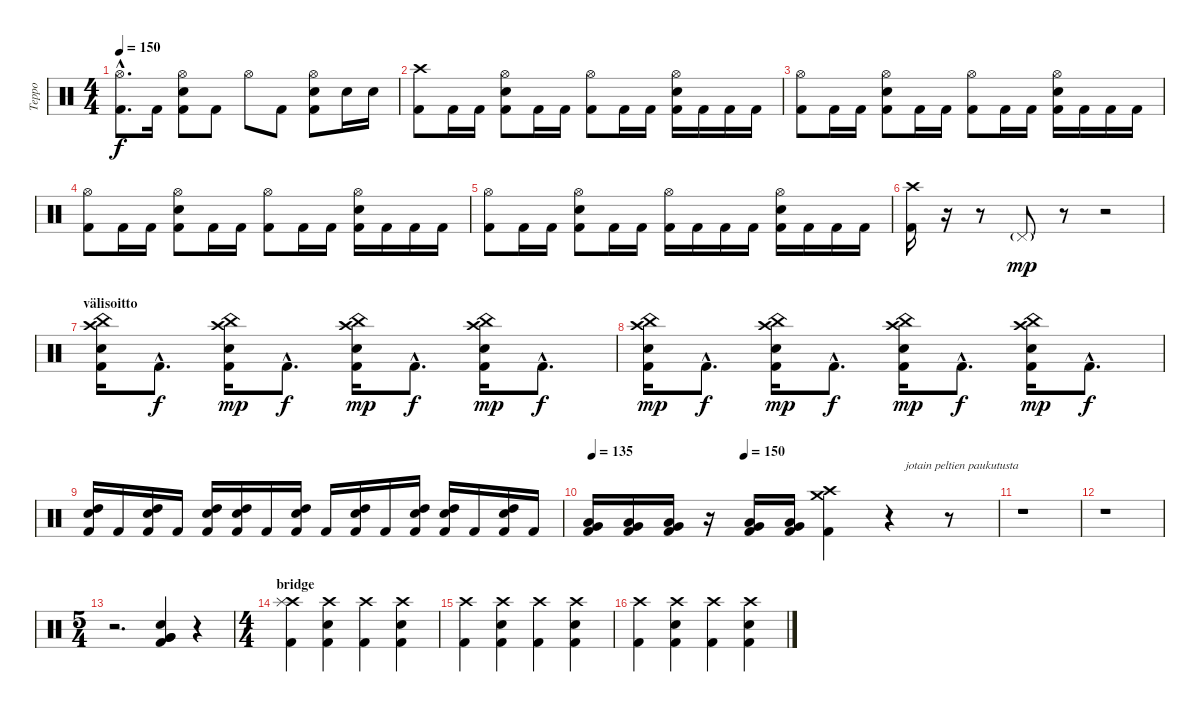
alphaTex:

\track ("Teppo" "Teppo") {instrument percussion}
\staff {score}
\articulation defaults
\ts (4 4)
\tempo 150
\clef neutral
\ks c
("Hi-Hat (open)"{hac} "Kick (hit) 2"{hac}).8{d dy f} "Kick (hit) 2".16 ("Hi-Hat (open)" "Electric Snare (hit)" "Kick (hit) 2").8 "Kick (hit) 2".8 "Hi-Hat (open)".8 "Kick (hit) 2".8 ("Hi-Hat (open)" "Electric Snare (hit)" "Kick (hit) 2").8 "Electric Snare (hit)".16 "Electric Snare (hit)".16 |
("Crash high (hit)" "Kick (hit) 2").8 "Kick (hit) 2".16 "Kick (hit) 2".16 ("Hi-Hat (open)" "Electric Snare (hit)" "Kick (hit) 2").8 "Kick (hit) 2".16 "Kick (hit) 2".16 ("Hi-Hat (open)" "Kick (hit) 2").8 "Kick (hit) 2".16 "Kick (hit) 2".16 ("Hi-Hat (open)" "Electric Snare (hit)" "Kick (hit) 2").16 "Kick (hit) 2".16 "Kick (hit) 2".16 "Kick (hit) 2".16 |
("Hi-Hat (open)" "Kick (hit) 2").8 "Kick (hit) 2".16 "Kick (hit) 2".16 ("Hi-Hat (open)" "Electric Snare (hit)" "Kick (hit) 2").8 "Kick (hit) 2".16 "Kick (hit) 2".16 ("Hi-Hat (open)" "Kick (hit) 2").8 "Kick (hit) 2".16 "Kick (hit) 2".16 ("Hi-Hat (open)" "Electric Snare (hit)" "Kick (hit) 2").16 "Kick (hit) 2".16 "Kick (hit) 2".16 "Kick (hit) 2".16 |
("Hi-Hat (open)" "Kick (hit) 2").8 "Kick (hit) 2".16 "Kick (hit) 2".16 ("Hi-Hat (open)" "Electric Snare (hit)" "Kick (hit) 2").8 "Kick (hit) 2".16 "Kick (hit) 2".16 ("Hi-Hat (open)" "Kick (hit) 2").8 "Kick (hit) 2".16 "Kick (hit) 2".16 ("Hi-Hat (open)" "Electric Snare (hit)" "Kick (hit) 2").16 "Kick (hit) 2".16 "Kick (hit) 2".16 "Kick (hit) 2".16 |
("Hi-Hat (open)" "Kick (hit) 2").8 "Kick (hit) 2".16 "Kick (hit) 2".16 ("Hi-Hat (open)" "Electric Snare (hit)" "Kick (hit) 2").8 "Kick (hit) 2".16 "Kick (hit) 2".16 ("Hi-Hat (open)" "Kick (hit) 2").16 "Kick (hit) 2".16 "Kick (hit) 2".16 "Kick (hit) 2".16 ("Hi-Hat (open)" "Electric Snare (hit)" "Kick (hit) 2").16 "Kick (hit) 2".16 "Kick (hit) 2".16 "Kick (hit) 2".16 |
("Crash high (hit)"{pm} "Kick (hit) 2").16 r.16 r.8 "Pedal Hi-Hat (hit)"{g}.8{dy mp} r.8 r.2 |
\section ("" "välisoitto")
("China (hit)" "Crash high (hit)" "Electric Snare (hit)" "Kick (hit) 2").16 "Kick (hit) 2"{hac}.8{d dy f} ("China (hit)" "Crash high (hit)" "Electric Snare (hit)" "Kick (hit) 2").16{dy mp} "Kick (hit) 2"{hac}.8{d dy f} ("China (hit)" "Crash high (hit)" "Electric Snare (hit)" "Kick (hit) 2").16{dy mp} "Kick (hit) 2"{hac}.8{d dy f} ("China (hit)" "Crash high (hit)" "Electric Snare (hit)" "Kick (hit) 2").16{dy mp} "Kick (hit) 2"{hac}.8{d dy f} |
("China (hit)" "Crash high (hit)" "Electric Snare (hit)" "Kick (hit) 2").16{dy mp} "Kick (hit) 2"{hac}.8{d dy f} ("China (hit)" "Crash high (hit)" "Electric Snare (hit)" "Kick (hit) 2").16{dy mp} "Kick (hit) 2"{hac}.8{d dy f} ("China (hit)" "Crash high (hit)" "Electric Snare (hit)" "Kick (hit) 2").16{dy mp} "Kick (hit) 2"{hac}.8{d dy f} ("China (hit)" "Crash high (hit)" "Electric Snare (hit)" "Kick (hit) 2").16{dy mp} "Kick (hit) 2"{hac}.8{d dy f} |
("High Tom (hit)" "Electric Snare (hit)" "Kick (hit) 2").16 "Kick (hit) 2".16 ("High Tom (hit)" "Electric Snare (hit)" "Kick (hit) 2").16 "Kick (hit) 2".16 ("High Tom (hit)" "Electric Snare (hit)" "Kick (hit) 2").16 ("High Tom (hit)" "Electric Snare (hit)" "Kick (hit) 2").16 "Kick (hit) 2".16 ("High Tom (hit)" "Electric Snare (hit)" "Kick (hit) 2").16 "Kick (hit) 2".16 ("High Tom (hit)" "Electric Snare (hit)" "Kick (hit) 2").16 "Kick (hit) 2".16 ("High Tom (hit)" "Electric Snare (hit)" "Kick (hit) 2").16 ("High Tom (hit)" "Electric Snare (hit)" "Kick (hit) 2").16 "Kick (hit) 2".16 ("High Tom (hit)" "Electric Snare (hit)" "Kick (hit) 2").16 "Kick (hit) 2".16 |
\tempo (150 0.375)
\tempo 135
("Very Low Tom (hit)" "Low Floor Tom (hit)" "Kick (hit) 2").16 ("Very Low Tom (hit)" "Low Floor Tom (hit)" "Kick (hit) 2").16 ("Very Low Tom (hit)" "Low Floor Tom (hit)" "Kick (hit) 2").16 r.16 ("Very Low Tom (hit)" "Low Floor Tom (hit)" "Kick (hit) 2").16 ("Very Low Tom (hit)" "Low Floor Tom (hit)" "Kick (hit) 2").16 ("Crash high (hit)" "Crash medium (hit)" "Kick (hit) 2").4{txt "                         jotain peltien paukutusta"} r.4 r.8 |
r.1 |
r.1 |
\ts (5 4)
r.2{d} ("Very Low Tom (hit)" "Very Low Tom (hit)" "Electric Snare (hit)" "Kick (hit) 2").4 r.4 |
\ts (4 4)
\section ("" "bridge")
("Crash high (hit)" "Splash (hit)" "Kick (hit) 2").4 ("Crash high (hit)" "Electric Snare (hit)" "Kick (hit) 2").4 ("Crash high (hit)" "Kick (hit) 2").4 ("Crash high (hit)" "Electric Snare (hit)" "Kick (hit) 2").4 |
("Crash high (hit)" "Kick (hit) 2").4 ("Crash high (hit)" "Electric Snare (hit)" "Kick (hit) 2").4 ("Crash high (hit)" "Kick (hit) 2").4 ("Crash high (hit)" "Electric Snare (hit)" "Kick (hit) 2").4 |
("Crash high (hit)" "Kick (hit) 2").4 ("Crash high (hit)" "Electric Snare (hit)" "Kick (hit) 2").4 ("Crash high (hit)" "Kick (hit) 2").4 ("Crash high (hit)" "Electric Snare (hit)" "Kick (hit) 2").4
